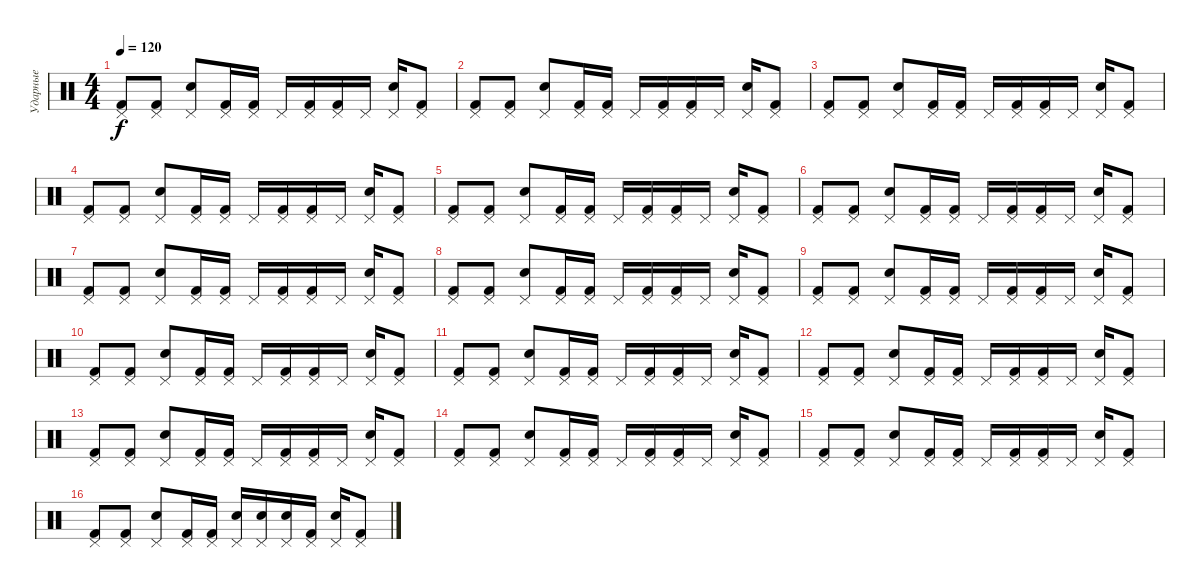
\track ("Ударные" "Ударные") {instrument percussion}
\staff {score}
\articulation defaults
\ts (4 4)
\tempo 120
\clef neutral
\ks c
("Pedal Hi-Hat (hit)" "Kick (hit) 2").8{dy f} ("Pedal Hi-Hat (hit)" "Kick (hit) 2").8 ("Pedal Hi-Hat (hit)" "Snare (hit) 2").8 ("Pedal Hi-Hat (hit)" "Kick (hit) 2").16 ("Pedal Hi-Hat (hit)" "Kick (hit) 2").16 "Pedal Hi-Hat (hit)".16 ("Pedal Hi-Hat (hit)" "Kick (hit) 2").16 ("Pedal Hi-Hat (hit)" "Kick (hit) 2").16 "Pedal Hi-Hat (hit)".16 ("Pedal Hi-Hat (hit)" "Snare (hit) 2").16 ("Pedal Hi-Hat (hit)" "Kick (hit) 2").8 |
("Pedal Hi-Hat (hit)" "Kick (hit) 2").8 ("Pedal Hi-Hat (hit)" "Kick (hit) 2").8 ("Pedal Hi-Hat (hit)" "Snare (hit) 2").8 ("Pedal Hi-Hat (hit)" "Kick (hit) 2").16 ("Pedal Hi-Hat (hit)" "Kick (hit) 2").16 "Pedal Hi-Hat (hit)".16 ("Pedal Hi-Hat (hit)" "Kick (hit) 2").16 ("Pedal Hi-Hat (hit)" "Kick (hit) 2").16 "Pedal Hi-Hat (hit)".16 ("Pedal Hi-Hat (hit)" "Snare (hit) 2").16 ("Pedal Hi-Hat (hit)" "Kick (hit) 2").8 |
("Pedal Hi-Hat (hit)" "Kick (hit) 2").8 ("Pedal Hi-Hat (hit)" "Kick (hit) 2").8 ("Pedal Hi-Hat (hit)" "Snare (hit) 2").8 ("Pedal Hi-Hat (hit)" "Kick (hit) 2").16 ("Pedal Hi-Hat (hit)" "Kick (hit) 2").16 "Pedal Hi-Hat (hit)".16 ("Pedal Hi-Hat (hit)" "Kick (hit) 2").16 ("Pedal Hi-Hat (hit)" "Kick (hit) 2").16 "Pedal Hi-Hat (hit)".16 ("Pedal Hi-Hat (hit)" "Snare (hit) 2").16 ("Pedal Hi-Hat (hit)" "Kick (hit) 2").8 |
("Pedal Hi-Hat (hit)" "Kick (hit) 2").8 ("Pedal Hi-Hat (hit)" "Kick (hit) 2").8 ("Pedal Hi-Hat (hit)" "Snare (hit) 2").8 ("Pedal Hi-Hat (hit)" "Kick (hit) 2").16 ("Pedal Hi-Hat (hit)" "Kick (hit) 2").16 "Pedal Hi-Hat (hit)".16 ("Pedal Hi-Hat (hit)" "Kick (hit) 2").16 ("Pedal Hi-Hat (hit)" "Kick (hit) 2").16 "Pedal Hi-Hat (hit)".16 ("Pedal Hi-Hat (hit)" "Snare (hit) 2").16 ("Pedal Hi-Hat (hit)" "Kick (hit) 2").8 |
("Pedal Hi-Hat (hit)" "Kick (hit) 2").8 ("Pedal Hi-Hat (hit)" "Kick (hit) 2").8 ("Pedal Hi-Hat (hit)" "Snare (hit) 2").8 ("Pedal Hi-Hat (hit)" "Kick (hit) 2").16 ("Pedal Hi-Hat (hit)" "Kick (hit) 2").16 "Pedal Hi-Hat (hit)".16 ("Pedal Hi-Hat (hit)" "Kick (hit) 2").16 ("Pedal Hi-Hat (hit)" "Kick (hit) 2").16 "Pedal Hi-Hat (hit)".16 ("Pedal Hi-Hat (hit)" "Snare (hit) 2").16 ("Pedal Hi-Hat (hit)" "Kick (hit) 2").8 |
("Pedal Hi-Hat (hit)" "Kick (hit) 2").8 ("Pedal Hi-Hat (hit)" "Kick (hit) 2").8 ("Pedal Hi-Hat (hit)" "Snare (hit) 2").8 ("Pedal Hi-Hat (hit)" "Kick (hit) 2").16 ("Pedal Hi-Hat (hit)" "Kick (hit) 2").16 "Pedal Hi-Hat (hit)".16 ("Pedal Hi-Hat (hit)" "Kick (hit) 2").16 ("Pedal Hi-Hat (hit)" "Kick (hit) 2").16 "Pedal Hi-Hat (hit)".16 ("Pedal Hi-Hat (hit)" "Snare (hit) 2").16 ("Pedal Hi-Hat (hit)" "Kick (hit) 2").8 |
("Pedal Hi-Hat (hit)" "Kick (hit) 2").8 ("Pedal Hi-Hat (hit)" "Kick (hit) 2").8 ("Pedal Hi-Hat (hit)" "Snare (hit) 2").8 ("Pedal Hi-Hat (hit)" "Kick (hit) 2").16 ("Pedal Hi-Hat (hit)" "Kick (hit) 2").16 "Pedal Hi-Hat (hit)".16 ("Pedal Hi-Hat (hit)" "Kick (hit) 2").16 ("Pedal Hi-Hat (hit)" "Kick (hit) 2").16 "Pedal Hi-Hat (hit)".16 ("Pedal Hi-Hat (hit)" "Snare (hit) 2").16 ("Pedal Hi-Hat (hit)" "Kick (hit) 2").8 |
("Pedal Hi-Hat (hit)" "Kick (hit) 2").8 ("Pedal Hi-Hat (hit)" "Kick (hit) 2").8 ("Pedal Hi-Hat (hit)" "Snare (hit) 2").8 ("Pedal Hi-Hat (hit)" "Kick (hit) 2").16 ("Pedal Hi-Hat (hit)" "Kick (hit) 2").16 "Pedal Hi-Hat (hit)".16 ("Pedal Hi-Hat (hit)" "Kick (hit) 2").16 ("Pedal Hi-Hat (hit)" "Kick (hit) 2").16 "Pedal Hi-Hat (hit)".16 ("Pedal Hi-Hat (hit)" "Snare (hit) 2").16 ("Pedal Hi-Hat (hit)" "Kick (hit) 2").8 |
("Pedal Hi-Hat (hit)" "Kick (hit) 2").8 ("Pedal Hi-Hat (hit)" "Kick (hit) 2").8 ("Pedal Hi-Hat (hit)" "Snare (hit) 2").8 ("Pedal Hi-Hat (hit)" "Kick (hit) 2").16 ("Pedal Hi-Hat (hit)" "Kick (hit) 2").16 "Pedal Hi-Hat (hit)".16 ("Pedal Hi-Hat (hit)" "Kick (hit) 2").16 ("Pedal Hi-Hat (hit)" "Kick (hit) 2").16 "Pedal Hi-Hat (hit)".16 ("Pedal Hi-Hat (hit)" "Snare (hit) 2").16 ("Pedal Hi-Hat (hit)" "Kick (hit) 2").8 |
("Pedal Hi-Hat (hit)" "Kick (hit) 2").8 ("Pedal Hi-Hat (hit)" "Kick (hit) 2").8 ("Pedal Hi-Hat (hit)" "Snare (hit) 2").8 ("Pedal Hi-Hat (hit)" "Kick (hit) 2").16 ("Pedal Hi-Hat (hit)" "Kick (hit) 2").16 "Pedal Hi-Hat (hit)".16 ("Pedal Hi-Hat (hit)" "Kick (hit) 2").16 ("Pedal Hi-Hat (hit)" "Kick (hit) 2").16 "Pedal Hi-Hat (hit)".16 ("Pedal Hi-Hat (hit)" "Snare (hit) 2").16 ("Pedal Hi-Hat (hit)" "Kick (hit) 2").8 |
("Pedal Hi-Hat (hit)" "Kick (hit) 2").8 ("Pedal Hi-Hat (hit)" "Kick (hit) 2").8 ("Pedal Hi-Hat (hit)" "Snare (hit) 2").8 ("Pedal Hi-Hat (hit)" "Kick (hit) 2").16 ("Pedal Hi-Hat (hit)" "Kick (hit) 2").16 "Pedal Hi-Hat (hit)".16 ("Pedal Hi-Hat (hit)" "Kick (hit) 2").16 ("Pedal Hi-Hat (hit)" "Kick (hit) 2").16 "Pedal Hi-Hat (hit)".16 ("Pedal Hi-Hat (hit)" "Snare (hit) 2").16 ("Pedal Hi-Hat (hit)" "Kick (hit) 2").8 |
("Pedal Hi-Hat (hit)" "Kick (hit) 2").8 ("Pedal Hi-Hat (hit)" "Kick (hit) 2").8 ("Pedal Hi-Hat (hit)" "Snare (hit) 2").8 ("Pedal Hi-Hat (hit)" "Kick (hit) 2").16 ("Pedal Hi-Hat (hit)" "Kick (hit) 2").16 "Pedal Hi-Hat (hit)".16 ("Pedal Hi-Hat (hit)" "Kick (hit) 2").16 ("Pedal Hi-Hat (hit)" "Kick (hit) 2").16 "Pedal Hi-Hat (hit)".16 ("Pedal Hi-Hat (hit)" "Snare (hit) 2").16 ("Pedal Hi-Hat (hit)" "Kick (hit) 2").8 |
("Pedal Hi-Hat (hit)" "Kick (hit) 2").8 ("Pedal Hi-Hat (hit)" "Kick (hit) 2").8 ("Pedal Hi-Hat (hit)" "Snare (hit) 2").8 ("Pedal Hi-Hat (hit)" "Kick (hit) 2").16 ("Pedal Hi-Hat (hit)" "Kick (hit) 2").16 "Pedal Hi-Hat (hit)".16 ("Pedal Hi-Hat (hit)" "Kick (hit) 2").16 ("Pedal Hi-Hat (hit)" "Kick (hit) 2").16 "Pedal Hi-Hat (hit)".16 ("Pedal Hi-Hat (hit)" "Snare (hit) 2").16 ("Pedal Hi-Hat (hit)" "Kick (hit) 2").8 |
("Pedal Hi-Hat (hit)" "Kick (hit) 2").8 ("Pedal Hi-Hat (hit)" "Kick (hit) 2").8 ("Pedal Hi-Hat (hit)" "Snare (hit) 2").8 ("Pedal Hi-Hat (hit)" "Kick (hit) 2").16 ("Pedal Hi-Hat (hit)" "Kick (hit) 2").16 "Pedal Hi-Hat (hit)".16 ("Pedal Hi-Hat (hit)" "Kick (hit) 2").16 ("Pedal Hi-Hat (hit)" "Kick (hit) 2").16 "Pedal Hi-Hat (hit)".16 ("Pedal Hi-Hat (hit)" "Snare (hit) 2").16 ("Pedal Hi-Hat (hit)" "Kick (hit) 2").8 |
("Pedal Hi-Hat (hit)" "Kick (hit) 2").8 ("Pedal Hi-Hat (hit)" "Kick (hit) 2").8 ("Pedal Hi-Hat (hit)" "Snare (hit) 2").8 ("Pedal Hi-Hat (hit)" "Kick (hit) 2").16 ("Pedal Hi-Hat (hit)" "Kick (hit) 2").16 "Pedal Hi-Hat (hit)".16 ("Pedal Hi-Hat (hit)" "Kick (hit) 2").16 ("Pedal Hi-Hat (hit)" "Kick (hit) 2").16 "Pedal Hi-Hat (hit)".16 ("Pedal Hi-Hat (hit)" "Snare (hit) 2").16 ("Pedal Hi-Hat (hit)" "Kick (hit) 2").8 |
("Pedal Hi-Hat (hit)" "Kick (hit) 2").8 ("Pedal Hi-Hat (hit)" "Kick (hit) 2").8 ("Pedal Hi-Hat (hit)" "Snare (hit) 2").8 ("Pedal Hi-Hat (hit)" "Kick (hit) 2").16 ("Pedal Hi-Hat (hit)" "Kick (hit) 2").16 ("Pedal Hi-Hat (hit)" "Electric Snare (hit)").16 ("Pedal Hi-Hat (hit)" "Snare (hit) 2").16 ("Pedal Hi-Hat (hit)" "Snare (hit) 2").16 ("Pedal Hi-Hat (hit)" "Kick (hit) 2").16 ("Pedal Hi-Hat (hit)" "Snare (hit) 2").16 ("Pedal Hi-Hat (hit)" "Kick (hit) 2").8
